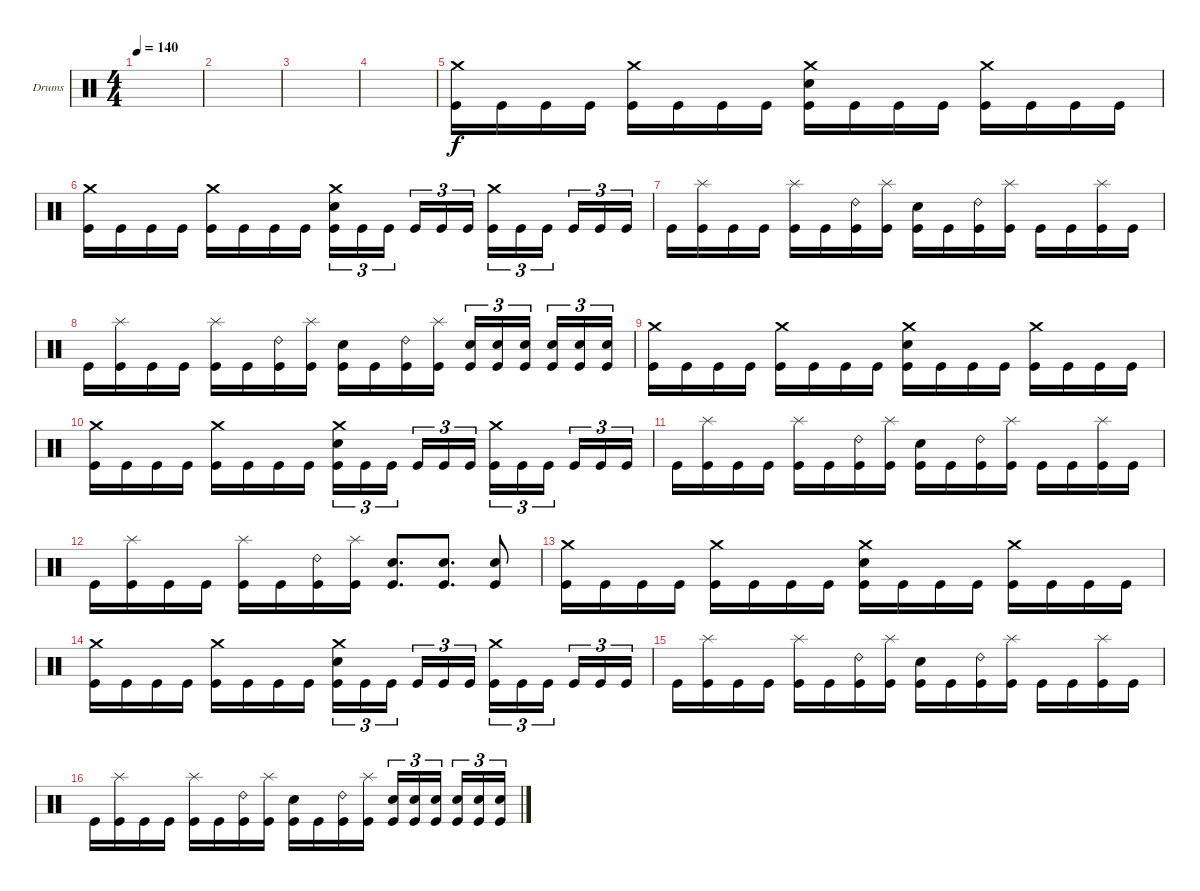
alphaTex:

\defaultSystemsLayout 4
\bracketExtendMode groupsimilarinstruments
\firstSystemTrackNameOrientation horizontal
\otherSystemsTrackNameOrientation horizontal
\track ("Drumkit" "Drums") {instrument percussion}
\staff {score}
\articulation defaults
\ts (4 4)
\tempo 140
\clef neutral
\ks c
|
|
|
|
("Crash medium (hit)" "Kick (hit)").16 "Kick (hit)".16 "Kick (hit)".16 "Kick (hit)".16 ("Crash medium (hit)" "Kick (hit)").16 "Kick (hit)".16 "Kick (hit)".16 "Kick (hit)".16 ("Crash medium (hit)" "Snare (hit) 2" "Kick (hit)").16 "Kick (hit)".16 "Kick (hit)".16 "Kick (hit)".16 ("Crash medium (hit)" "Kick (hit)").16 "Kick (hit)".16 "Kick (hit)".16 "Kick (hit)".16 |
("Crash medium (hit)" "Kick (hit)").16 "Kick (hit)".16 "Kick (hit)".16 "Kick (hit)".16 ("Crash medium (hit)" "Kick (hit)").16 "Kick (hit)".16 "Kick (hit)".16 "Kick (hit)".16 ("Crash medium (hit)" "Snare (hit) 2" "Kick (hit)").16{tu (3 2)} "Kick (hit)".16{tu (3 2)} "Kick (hit)".16{tu (3 2)} "Kick (hit)".16{tu (3 2)} "Kick (hit)".16{tu (3 2)} "Kick (hit)".16{tu (3 2)} ("Crash medium (hit)" "Kick (hit)").16{tu (3 2)} "Kick (hit)".16{tu (3 2)} "Kick (hit)".16{tu (3 2)} "Kick (hit)".16{tu (3 2)} "Kick (hit)".16{tu (3 2)} "Kick (hit)".16{tu (3 2)} |
"Kick (hit)".16 ("Splash (hit)" "Kick (hit)").16 "Kick (hit)".16 "Kick (hit)".16 ("Splash (hit)" "Kick (hit)").16 "Kick (hit)".16 ("Ride (bell) 2" "Kick (hit)").16 ("Splash (hit)" "Kick (hit)").16 ("Snare (hit) 2" "Kick (hit)").16 "Kick (hit)".16 ("Ride (bell) 2" "Kick (hit)").16 ("Splash (hit)" "Kick (hit)").16 "Kick (hit)".16 "Kick (hit)".16 ("Splash (hit)" "Kick (hit)").16 "Kick (hit)".16 |
"Kick (hit)".16 ("Splash (hit)" "Kick (hit)").16 "Kick (hit)".16 "Kick (hit)".16 ("Splash (hit)" "Kick (hit)").16 "Kick (hit)".16 ("Ride (bell) 2" "Kick (hit)").16 ("Splash (hit)" "Kick (hit)").16 ("Snare (hit) 2" "Kick (hit)").16 "Kick (hit)".16 ("Ride (bell) 2" "Kick (hit)").16 ("Splash (hit)" "Kick (hit)").16 ("Snare (hit) 2" "Kick (hit)").16{tu (3 2)} ("Snare (hit) 2" "Kick (hit)").16{tu (3 2)} ("Snare (hit) 2" "Kick (hit)").16{tu (3 2)} ("Snare (hit) 2" "Kick (hit)").16{tu (3 2)} ("Snare (hit) 2" "Kick (hit)").16{tu (3 2)} ("Snare (hit) 2" "Kick (hit)").16{tu (3 2)} |
("Crash medium (hit)" "Kick (hit)").16 "Kick (hit)".16 "Kick (hit)".16 "Kick (hit)".16 ("Crash medium (hit)" "Kick (hit)").16 "Kick (hit)".16 "Kick (hit)".16 "Kick (hit)".16 ("Crash medium (hit)" "Snare (hit) 2" "Kick (hit)").16 "Kick (hit)".16 "Kick (hit)".16 "Kick (hit)".16 ("Crash medium (hit)" "Kick (hit)").16 "Kick (hit)".16 "Kick (hit)".16 "Kick (hit)".16 |
("Crash medium (hit)" "Kick (hit)").16 "Kick (hit)".16 "Kick (hit)".16 "Kick (hit)".16 ("Crash medium (hit)" "Kick (hit)").16 "Kick (hit)".16 "Kick (hit)".16 "Kick (hit)".16 ("Crash medium (hit)" "Snare (hit) 2" "Kick (hit)").16{tu (3 2)} "Kick (hit)".16{tu (3 2)} "Kick (hit)".16{tu (3 2)} "Kick (hit)".16{tu (3 2)} "Kick (hit)".16{tu (3 2)} "Kick (hit)".16{tu (3 2)} ("Crash medium (hit)" "Kick (hit)").16{tu (3 2)} "Kick (hit)".16{tu (3 2)} "Kick (hit)".16{tu (3 2)} "Kick (hit)".16{tu (3 2)} "Kick (hit)".16{tu (3 2)} "Kick (hit)".16{tu (3 2)} |
"Kick (hit)".16 ("Splash (hit)" "Kick (hit)").16 "Kick (hit)".16 "Kick (hit)".16 ("Splash (hit)" "Kick (hit)").16 "Kick (hit)".16 ("Ride (bell) 2" "Kick (hit)").16 ("Splash (hit)" "Kick (hit)").16 ("Snare (hit) 2" "Kick (hit)").16 "Kick (hit)".16 ("Ride (bell) 2" "Kick (hit)").16 ("Splash (hit)" "Kick (hit)").16 "Kick (hit)".16 "Kick (hit)".16 ("Splash (hit)" "Kick (hit)").16 "Kick (hit)".16 |
"Kick (hit)".16 ("Splash (hit)" "Kick (hit)").16 "Kick (hit)".16 "Kick (hit)".16 ("Splash (hit)" "Kick (hit)").16 "Kick (hit)".16 ("Ride (bell) 2" "Kick (hit)").16 ("Splash (hit)" "Kick (hit)").16 ("Snare (hit) 2" "Kick (hit)").8{d} ("Snare (hit) 2" "Kick (hit)").8{d} ("Snare (hit) 2" "Kick (hit)").8 |
("Crash medium (hit)" "Kick (hit)").16 "Kick (hit)".16 "Kick (hit)".16 "Kick (hit)".16 ("Crash medium (hit)" "Kick (hit)").16 "Kick (hit)".16 "Kick (hit)".16 "Kick (hit)".16 ("Crash medium (hit)" "Snare (hit) 2" "Kick (hit)").16 "Kick (hit)".16 "Kick (hit)".16 "Kick (hit)".16 ("Crash medium (hit)" "Kick (hit)").16 "Kick (hit)".16 "Kick (hit)".16 "Kick (hit)".16 |
("Crash medium (hit)" "Kick (hit)").16 "Kick (hit)".16 "Kick (hit)".16 "Kick (hit)".16 ("Crash medium (hit)" "Kick (hit)").16 "Kick (hit)".16 "Kick (hit)".16 "Kick (hit)".16 ("Crash medium (hit)" "Snare (hit) 2" "Kick (hit)").16{tu (3 2)} "Kick (hit)".16{tu (3 2)} "Kick (hit)".16{tu (3 2)} "Kick (hit)".16{tu (3 2)} "Kick (hit)".16{tu (3 2)} "Kick (hit)".16{tu (3 2)} ("Crash medium (hit)" "Kick (hit)").16{tu (3 2)} "Kick (hit)".16{tu (3 2)} "Kick (hit)".16{tu (3 2)} "Kick (hit)".16{tu (3 2)} "Kick (hit)".16{tu (3 2)} "Kick (hit)".16{tu (3 2)} |
"Kick (hit)".16 ("Splash (hit)" "Kick (hit)").16 "Kick (hit)".16 "Kick (hit)".16 ("Splash (hit)" "Kick (hit)").16 "Kick (hit)".16 ("Ride (bell) 2" "Kick (hit)").16 ("Splash (hit)" "Kick (hit)").16 ("Snare (hit) 2" "Kick (hit)").16 "Kick (hit)".16 ("Ride (bell) 2" "Kick (hit)").16 ("Splash (hit)" "Kick (hit)").16 "Kick (hit)".16 "Kick (hit)".16 ("Splash (hit)" "Kick (hit)").16 "Kick (hit)".16 |
"Kick (hit)".16 ("Splash (hit)" "Kick (hit)").16 "Kick (hit)".16 "Kick (hit)".16 ("Splash (hit)" "Kick (hit)").16 "Kick (hit)".16 ("Ride (bell) 2" "Kick (hit)").16 ("Splash (hit)" "Kick (hit)").16 ("Snare (hit) 2" "Kick (hit)").16 "Kick (hit)".16 ("Ride (bell) 2" "Kick (hit)").16 ("Splash (hit)" "Kick (hit)").16 ("Snare (hit) 2" "Kick (hit)").16{tu (3 2)} ("Snare (hit) 2" "Kick (hit)").16{tu (3 2)} ("Snare (hit) 2" "Kick (hit)").16{tu (3 2)} ("Snare (hit) 2" "Kick (hit)").16{tu (3 2)} ("Snare (hit) 2" "Kick (hit)").16{tu (3 2)} ("Snare (hit) 2" "Kick (hit)").16{tu (3 2)}
